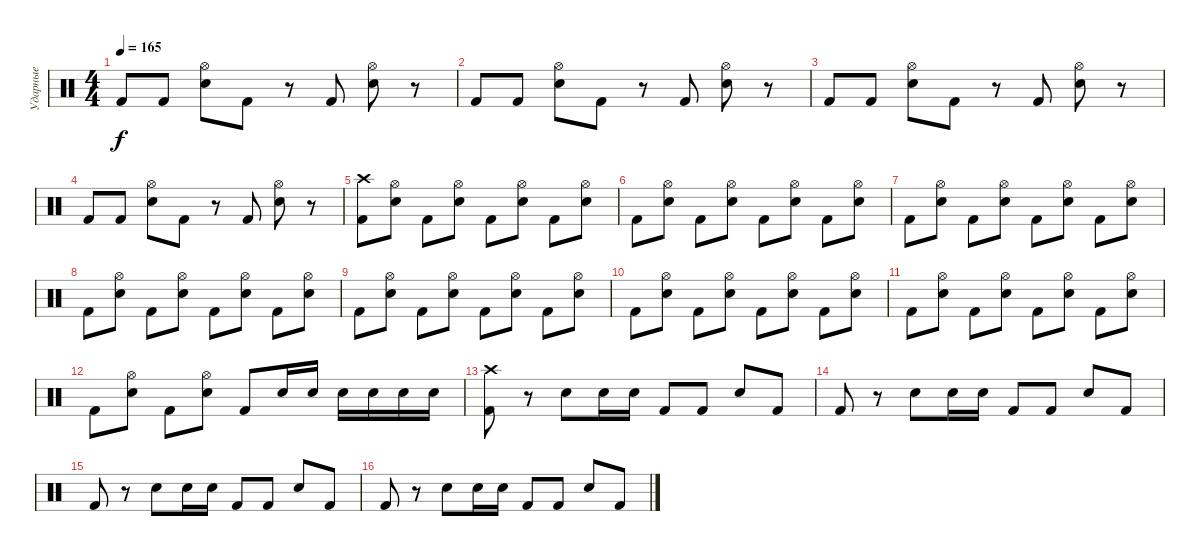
\track ("Ударные" "Ударные") {instrument percussion}
\staff {score}
\articulation defaults
\ts (4 4)
\tempo 165
\clef neutral
\ks c "Kick (hit) 2".8{dy f} "Kick (hit) 2".8
("Hi-Hat (open)" "Electric Snare (hit)").8 "Kick (hit) 2".8 r.8 "Kick (hit) 2".8 ("Hi-Hat (open)" "Electric Snare (hit)").8 r.8 |
"Kick (hit) 2".8 "Kick (hit) 2".8 ("Hi-Hat (open)" "Electric Snare (hit)").8 "Kick (hit) 2".8 r.8 "Kick (hit) 2".8 ("Hi-Hat (open)" "Electric Snare (hit)").8 r.8 |
"Kick (hit) 2".8 "Kick (hit) 2".8 ("Hi-Hat (open)" "Electric Snare (hit)").8 "Kick (hit) 2".8 r.8 "Kick (hit) 2".8 ("Hi-Hat (open)" "Electric Snare (hit)").8 r.8 |
"Kick (hit) 2".8 "Kick (hit) 2".8 ("Hi-Hat (open)" "Electric Snare (hit)").8 "Kick (hit) 2".8 r.8 "Kick (hit) 2".8 ("Hi-Hat (open)" "Electric Snare (hit)").8 r.8 |
("Crash high (hit)" "Kick (hit) 2").8 ("Hi-Hat (open)" "Electric Snare (hit)").8 "Kick (hit) 2".8 ("Hi-Hat (open)" "Electric Snare (hit)").8 "Kick (hit) 2".8 ("Hi-Hat (open)" "Electric Snare (hit)").8 "Kick (hit) 2".8 ("Hi-Hat (open)" "Electric Snare (hit)").8 |
"Kick (hit) 2".8 ("Hi-Hat (open)" "Electric Snare (hit)").8 "Kick (hit) 2".8 ("Hi-Hat (open)" "Electric Snare (hit)").8 "Kick (hit) 2".8 ("Hi-Hat (open)" "Electric Snare (hit)").8 "Kick (hit) 2".8 ("Hi-Hat (open)" "Electric Snare (hit)").8 |
"Kick (hit) 2".8 ("Hi-Hat (open)" "Electric Snare (hit)").8 "Kick (hit) 2".8 ("Hi-Hat (open)" "Electric Snare (hit)").8 "Kick (hit) 2".8 ("Hi-Hat (open)" "Electric Snare (hit)").8 "Kick (hit) 2".8 ("Hi-Hat (open)" "Electric Snare (hit)").8 |
"Kick (hit) 2".8 ("Hi-Hat (open)" "Electric Snare (hit)").8 "Kick (hit) 2".8 ("Hi-Hat (open)" "Electric Snare (hit)").8 "Kick (hit) 2".8 ("Hi-Hat (open)" "Electric Snare (hit)").8 "Kick (hit) 2".8 ("Hi-Hat (open)" "Electric Snare (hit)").8 |
"Kick (hit) 2".8 ("Hi-Hat (open)" "Electric Snare (hit)").8 "Kick (hit) 2".8 ("Hi-Hat (open)" "Electric Snare (hit)").8 "Kick (hit) 2".8 ("Hi-Hat (open)" "Electric Snare (hit)").8 "Kick (hit) 2".8 ("Hi-Hat (open)" "Electric Snare (hit)").8 |
"Kick (hit) 2".8 ("Hi-Hat (open)" "Electric Snare (hit)").8 "Kick (hit) 2".8 ("Hi-Hat (open)" "Electric Snare (hit)").8 "Kick (hit) 2".8 ("Hi-Hat (open)" "Electric Snare (hit)").8 "Kick (hit) 2".8 ("Hi-Hat (open)" "Electric Snare (hit)").8 |
"Kick (hit) 2".8 ("Hi-Hat (open)" "Electric Snare (hit)").8 "Kick (hit) 2".8 ("Hi-Hat (open)" "Electric Snare (hit)").8 "Kick (hit) 2".8 ("Hi-Hat (open)" "Electric Snare (hit)").8 "Kick (hit) 2".8 ("Hi-Hat (open)" "Electric Snare (hit)").8 |
"Kick (hit) 2".8 ("Hi-Hat (open)" "Electric Snare (hit)").8 "Kick (hit) 2".8 ("Hi-Hat (open)" "Electric Snare (hit)").8 "Kick (hit) 2".8 "Electric Snare (hit)".16 "Electric Snare (hit)".16 "Electric Snare (hit)".16 "Electric Snare (hit)".16 "Electric Snare (hit)".16 "Electric Snare (hit)".16 |
("Crash high (hit)" "Kick (hit) 2").8 r.8 "Electric Snare (hit)".8 "Electric Snare (hit)".16 "Electric Snare (hit)".16 "Kick (hit) 2".8 "Kick (hit) 2".8 "Electric Snare (hit)".8 "Kick (hit) 2".8 |
"Kick (hit) 2".8 r.8 "Electric Snare (hit)".8 "Electric Snare (hit)".16 "Electric Snare (hit)".16 "Kick (hit) 2".8 "Kick (hit) 2".8 "Electric Snare (hit)".8 "Kick (hit) 2".8 |
"Kick (hit) 2".8 r.8 "Electric Snare (hit)".8 "Electric Snare (hit)".16 "Electric Snare (hit)".16 "Kick (hit) 2".8 "Kick (hit) 2".8 "Electric Snare (hit)".8 "Kick (hit) 2".8 |
"Kick (hit) 2".8 r.8 "Electric Snare (hit)".8 "Electric Snare (hit)".16 "Electric Snare (hit)".16 "Kick (hit) 2".8 "Kick (hit) 2".8 "Electric Snare (hit)".8 "Kick (hit) 2".8
